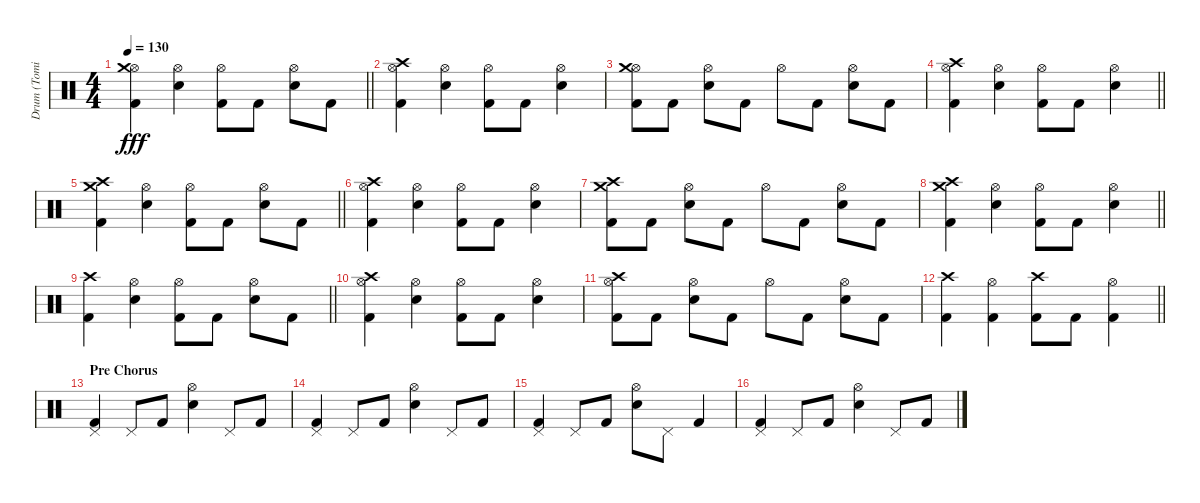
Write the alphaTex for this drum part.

\track ("Drum (Tomi)" "Drum (Tomi") {instrument percussion}
\staff {score}
\articulation defaults
\ts (4 4)
\tempo 130
\clef neutral
\barLineRight lightlight
\ks c
("Hi-Hat (open)" "Kick (hit) 2" "Crash medium (hit)").4{dy fff} ("Hi-Hat (open)" "Electric Snare (hit)").4 ("Hi-Hat (open)" "Kick (hit) 2").8 "Kick (hit) 2".8 ("Hi-Hat (open)" "Electric Snare (hit)").8 "Kick (hit) 2".8 |
("Hi-Hat (open)" "Kick (hit) 2" "Crash high (hit)").4 ("Hi-Hat (open)" "Electric Snare (hit)").4 ("Hi-Hat (open)" "Kick (hit) 2").8 "Kick (hit) 2".8 ("Hi-Hat (open)" "Electric Snare (hit)").4 |
("Hi-Hat (open)" "Kick (hit) 2" "Crash medium (hit)").8 "Kick (hit) 2".8 ("Hi-Hat (open)" "Electric Snare (hit)").8 "Kick (hit) 2".8 "Hi-Hat (open)".8 "Kick (hit) 2".8 ("Hi-Hat (open)" "Electric Snare (hit)").8 "Kick (hit) 2".8 |
\barLineRight lightlight
("Hi-Hat (open)" "Kick (hit) 2" "Crash high (hit)").4 ("Hi-Hat (open)" "Electric Snare (hit)").4 ("Hi-Hat (open)" "Kick (hit) 2").8 "Kick (hit) 2".8 ("Hi-Hat (open)" "Electric Snare (hit)").4 |
\barLineRight lightlight
("Crash high (hit)" "Kick (hit) 2" "Crash medium (hit)").4 ("Hi-Hat (open)" "Electric Snare (hit)").4 ("Hi-Hat (open)" "Kick (hit) 2").8 "Kick (hit) 2".8 ("Hi-Hat (open)" "Electric Snare (hit)").8 "Kick (hit) 2".8 |
("Crash high (hit)" "Hi-Hat (open)" "Kick (hit) 2").4 ("Hi-Hat (open)" "Electric Snare (hit)").4 ("Hi-Hat (open)" "Kick (hit) 2").8 "Kick (hit) 2".8 ("Hi-Hat (open)" "Electric Snare (hit)").4 |
("Crash high (hit)" "Kick (hit) 2" "Crash medium (hit)").8 "Kick (hit) 2".8 ("Hi-Hat (open)" "Electric Snare (hit)").8 "Kick (hit) 2".8 "Hi-Hat (open)".8 "Kick (hit) 2".8 ("Hi-Hat (open)" "Electric Snare (hit)").8 "Kick (hit) 2".8 |
\barLineRight lightlight
("Crash high (hit)" "Kick (hit) 2" "Crash medium (hit)").4 ("Hi-Hat (open)" "Electric Snare (hit)").4 ("Hi-Hat (open)" "Kick (hit) 2").8 "Kick (hit) 2".8 ("Hi-Hat (open)" "Electric Snare (hit)").4 |
\barLineRight lightlight
("Crash high (hit)" "Kick (hit) 2").4 ("Hi-Hat (open)" "Electric Snare (hit)").4 ("Hi-Hat (open)" "Kick (hit) 2").8 "Kick (hit) 2".8 ("Hi-Hat (open)" "Electric Snare (hit)").8 "Kick (hit) 2".8 |
("Crash high (hit)" "Hi-Hat (open)" "Kick (hit) 2").4 ("Hi-Hat (open)" "Electric Snare (hit)").4 ("Hi-Hat (open)" "Kick (hit) 2").8 "Kick (hit) 2".8 ("Hi-Hat (open)" "Electric Snare (hit)").4 |
("Crash high (hit)" "Hi-Hat (open)" "Kick (hit) 2").8 "Kick (hit) 2".8 ("Hi-Hat (open)" "Electric Snare (hit)").8 "Kick (hit) 2".8 "Hi-Hat (open)".8 "Kick (hit) 2".8 ("Hi-Hat (open)" "Electric Snare (hit)").8 "Kick (hit) 2".8 |
\barLineRight lightlight
("Crash high (hit)" "Kick (hit) 2").4 ("Hi-Hat (open)" "Kick (hit) 2").4 ("Crash high (hit)" "Kick (hit) 2").8 "Kick (hit) 2".8 ("Hi-Hat (open)" "Kick (hit) 2").4 |
\section ("" "Pre Chorus")
("Pedal Hi-Hat (hit)" "Kick (hit) 2").4 "Pedal Hi-Hat (hit)".8 "Kick (hit) 2".8 ("Electric Snare (hit)" "Hi-Hat (open)").4 "Pedal Hi-Hat (hit)".8 "Kick (hit) 2".8 |
("Pedal Hi-Hat (hit)" "Kick (hit) 2").4 "Pedal Hi-Hat (hit)".8 "Kick (hit) 2".8 ("Electric Snare (hit)" "Hi-Hat (open)").4 "Pedal Hi-Hat (hit)".8 "Kick (hit) 2".8 |
("Pedal Hi-Hat (hit)" "Kick (hit) 2").4 "Pedal Hi-Hat (hit)".8 "Kick (hit) 2".8 ("Hi-Hat (open)" "Electric Snare (hit)").8 "Pedal Hi-Hat (hit)".8 "Kick (hit) 2".4 |
("Pedal Hi-Hat (hit)" "Kick (hit) 2").4 "Pedal Hi-Hat (hit)".8 "Kick (hit) 2".8 ("Hi-Hat (open)" "Electric Snare (hit)").4 "Pedal Hi-Hat (hit)".8 "Kick (hit) 2".8
